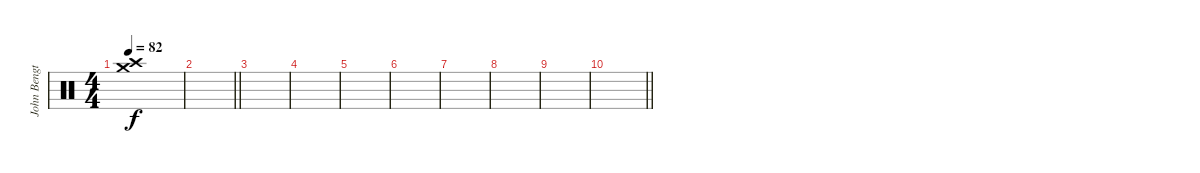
\track ("John Bengtsson" "John Bengt") {instrument percussion}
\staff {score}
\articulation defaults
\ts (4 4)
\tempo 82
\clef neutral
\ks c
("Crash medium (hit)" "Crash high (hit)").1{dy f} |
\barLineRight lightlight
|
|
|
|
|
|
|
|
\barLineRight lightlight
